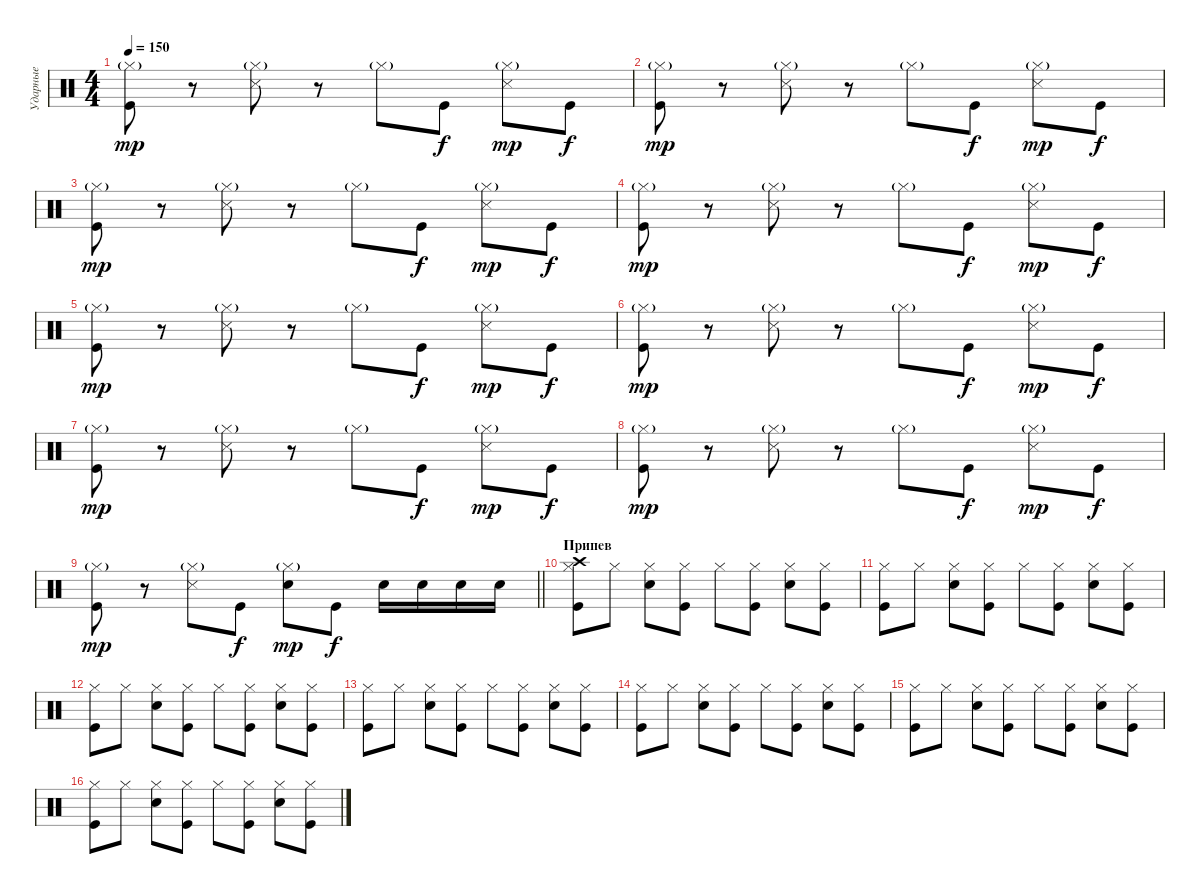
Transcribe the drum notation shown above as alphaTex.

\track ("Ударные" "Ударные") {instrument percussion}
\staff {score}
\articulation defaults
\ts (4 4)
\tempo 150
\clef neutral
\ks c
("Hi-Hat (closed)"{g} "Kick (hit)").8{dy mp} r.8 ("Hi-Hat (closed)"{g} "Snare (side stick) 3").8 r.8 "Hi-Hat (closed)"{g}.8 "Kick (hit)".8{dy f} ("Hi-Hat (closed)"{g} "Snare (side stick) 3").8{dy mp} "Kick (hit)".8{dy f} |
("Hi-Hat (closed)"{g} "Kick (hit)").8{dy mp} r.8 ("Hi-Hat (closed)"{g} "Snare (side stick) 3").8 r.8 "Hi-Hat (closed)"{g}.8 "Kick (hit)".8{dy f} ("Hi-Hat (closed)"{g} "Snare (side stick) 3").8{dy mp} "Kick (hit)".8{dy f} |
("Hi-Hat (closed)"{g} "Kick (hit)").8{dy mp} r.8 ("Hi-Hat (closed)"{g} "Snare (side stick) 3").8 r.8 "Hi-Hat (closed)"{g}.8 "Kick (hit)".8{dy f} ("Hi-Hat (closed)"{g} "Snare (side stick) 3").8{dy mp} "Kick (hit)".8{dy f} |
("Hi-Hat (closed)"{g} "Kick (hit)").8{dy mp} r.8 ("Hi-Hat (closed)"{g} "Snare (side stick) 3").8 r.8 "Hi-Hat (closed)"{g}.8 "Kick (hit)".8{dy f} ("Hi-Hat (closed)"{g} "Snare (side stick) 3").8{dy mp} "Kick (hit)".8{dy f} |
("Hi-Hat (closed)"{g} "Kick (hit)").8{dy mp} r.8 ("Hi-Hat (closed)"{g} "Snare (side stick) 3").8 r.8 "Hi-Hat (closed)"{g}.8 "Kick (hit)".8{dy f} ("Hi-Hat (closed)"{g} "Snare (side stick) 3").8{dy mp} "Kick (hit)".8{dy f} |
("Hi-Hat (closed)"{g} "Kick (hit)").8{dy mp} r.8 ("Hi-Hat (closed)"{g} "Snare (side stick) 3").8 r.8 "Hi-Hat (closed)"{g}.8 "Kick (hit)".8{dy f} ("Hi-Hat (closed)"{g} "Snare (side stick) 3").8{dy mp} "Kick (hit)".8{dy f} |
("Hi-Hat (closed)"{g} "Kick (hit)").8{dy mp} r.8 ("Hi-Hat (closed)"{g} "Snare (side stick) 3").8 r.8 "Hi-Hat (closed)"{g}.8 "Kick (hit)".8{dy f} ("Hi-Hat (closed)"{g} "Snare (side stick) 3").8{dy mp} "Kick (hit)".8{dy f} |
("Hi-Hat (closed)"{g} "Kick (hit)").8{dy mp} r.8 ("Hi-Hat (closed)"{g} "Snare (side stick) 3").8 r.8 "Hi-Hat (closed)"{g}.8 "Kick (hit)".8{dy f} ("Hi-Hat (closed)"{g} "Snare (side stick) 3").8{dy mp} "Kick (hit)".8{dy f} |
\barLineRight lightlight
("Hi-Hat (closed)"{g} "Kick (hit)").8{dy mp} r.8 ("Hi-Hat (closed)"{g} "Snare (side stick) 3").8 "Kick (hit)".8{dy f} ("Hi-Hat (closed)"{g} "Electric Snare (hit)").8{dy mp} "Kick (hit)".8{dy f} "Electric Snare (hit)".16 "Electric Snare (hit)".16 "Electric Snare (hit)".16 "Electric Snare (hit)".16 |
\section ("" "Припев")
("Crash high (hit)" "Hi-Hat (closed)" "Kick (hit)").8 "Hi-Hat (closed)".8 ("Hi-Hat (closed)" "Electric Snare (hit)").8 ("Hi-Hat (closed)" "Kick (hit)").8 "Hi-Hat (closed)".8 ("Hi-Hat (closed)" "Kick (hit)").8 ("Hi-Hat (closed)" "Electric Snare (hit)").8 ("Hi-Hat (closed)" "Kick (hit)").8 |
("Hi-Hat (closed)" "Kick (hit)").8 "Hi-Hat (closed)".8 ("Hi-Hat (closed)" "Electric Snare (hit)").8 ("Hi-Hat (closed)" "Kick (hit)").8 "Hi-Hat (closed)".8 ("Hi-Hat (closed)" "Kick (hit)").8 ("Hi-Hat (closed)" "Electric Snare (hit)").8 ("Hi-Hat (closed)" "Kick (hit)").8 |
("Hi-Hat (closed)" "Kick (hit)").8 "Hi-Hat (closed)".8 ("Hi-Hat (closed)" "Electric Snare (hit)").8 ("Hi-Hat (closed)" "Kick (hit)").8 "Hi-Hat (closed)".8 ("Hi-Hat (closed)" "Kick (hit)").8 ("Hi-Hat (closed)" "Electric Snare (hit)").8 ("Hi-Hat (closed)" "Kick (hit)").8 |
("Hi-Hat (closed)" "Kick (hit)").8 "Hi-Hat (closed)".8 ("Hi-Hat (closed)" "Electric Snare (hit)").8 ("Hi-Hat (closed)" "Kick (hit)").8 "Hi-Hat (closed)".8 ("Hi-Hat (closed)" "Kick (hit)").8 ("Hi-Hat (closed)" "Electric Snare (hit)").8 ("Hi-Hat (closed)" "Kick (hit)").8 |
("Hi-Hat (closed)" "Kick (hit)").8 "Hi-Hat (closed)".8 ("Hi-Hat (closed)" "Electric Snare (hit)").8 ("Hi-Hat (closed)" "Kick (hit)").8 "Hi-Hat (closed)".8 ("Hi-Hat (closed)" "Kick (hit)").8 ("Hi-Hat (closed)" "Electric Snare (hit)").8 ("Hi-Hat (closed)" "Kick (hit)").8 |
("Hi-Hat (closed)" "Kick (hit)").8 "Hi-Hat (closed)".8 ("Hi-Hat (closed)" "Electric Snare (hit)").8 ("Hi-Hat (closed)" "Kick (hit)").8 "Hi-Hat (closed)".8 ("Hi-Hat (closed)" "Kick (hit)").8 ("Hi-Hat (closed)" "Electric Snare (hit)").8 ("Hi-Hat (closed)" "Kick (hit)").8 |
("Hi-Hat (closed)" "Kick (hit)").8 "Hi-Hat (closed)".8 ("Hi-Hat (closed)" "Electric Snare (hit)").8 ("Hi-Hat (closed)" "Kick (hit)").8 "Hi-Hat (closed)".8 ("Hi-Hat (closed)" "Kick (hit)").8 ("Hi-Hat (closed)" "Electric Snare (hit)").8 ("Hi-Hat (closed)" "Kick (hit)").8
